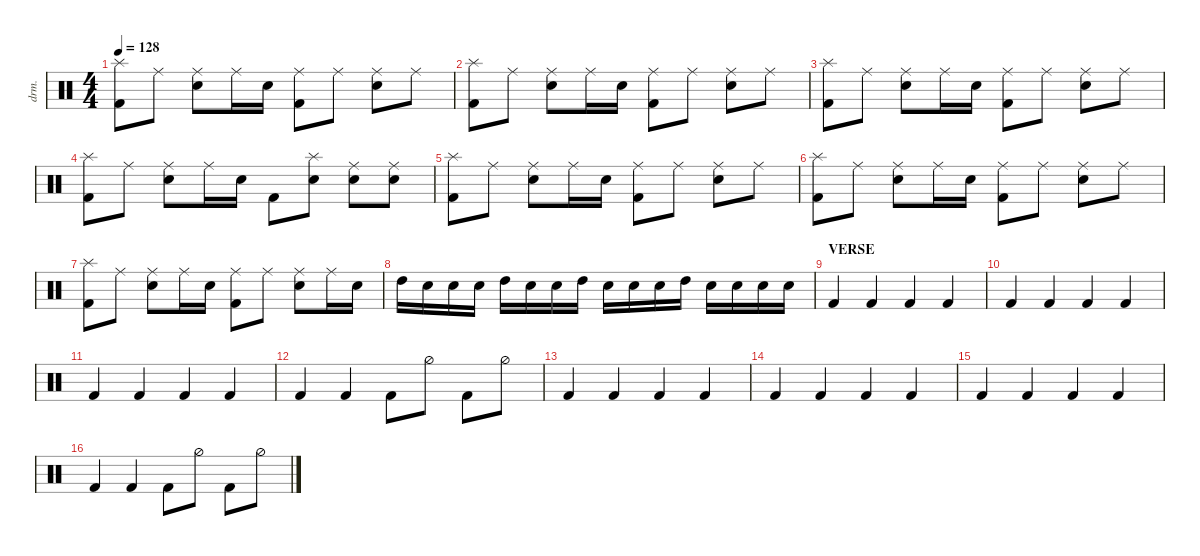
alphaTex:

\defaultSystemsLayout 4
\hideDynamics
\bracketExtendMode nobrackets
\track ("Drumkit" "drm.") {instrument percussion}
\staff {score}
\articulation defaults
\ts (4 4)
\tempo 128
\clef neutral
\ks c
("Kick (hit) 2" "Splash (hit)").8{dy mf beam Down} "Ride (middle)".8{beam Down} ("Ride (middle)" "Snare (hit) 2").8{beam Down} "Ride (middle)".16{beam Down} "Snare (hit) 2".16{beam Down} ("Ride (middle)" "Kick (hit) 2").8{beam Down} "Ride (middle)".8{beam Down} ("Ride (middle)" "Snare (hit) 2").8{beam Down} "Ride (middle)".8{beam Down} |
("Kick (hit) 2" "Splash (hit)").8{beam Down} "Ride (middle)".8{beam Down} ("Ride (middle)" "Snare (hit) 2").8{beam Down} "Ride (middle)".16{beam Down} "Snare (hit) 2".16{beam Down} ("Ride (middle)" "Kick (hit) 2").8{beam Down} "Ride (middle)".8{beam Down} ("Ride (middle)" "Snare (hit) 2").8{beam Down} "Ride (middle)".8{beam Down} |
("Kick (hit) 2" "Splash (hit)").8{beam Down} "Ride (middle)".8{beam Down} ("Ride (middle)" "Snare (hit) 2").8{beam Down} "Ride (middle)".16{beam Down} "Snare (hit) 2".16{beam Down} ("Ride (middle)" "Kick (hit) 2").8{beam Down} "Ride (middle)".8{beam Down} ("Ride (middle)" "Snare (hit) 2").8{beam Down} "Ride (middle)".8{beam Down} |
("Kick (hit) 2" "Splash (hit)").8{beam Down} "Ride (middle)".8{beam Down} ("Ride (middle)" "Snare (hit) 2").8{beam Down} "Ride (middle)".16{beam Down} "Snare (hit) 2".16{beam Down} "Kick (hit) 2".8{beam Down} ("Snare (hit) 2" "Splash (hit)").8{beam Down} ("Ride (middle)" "Snare (hit) 2").8{beam Down} ("Ride (middle)" "Snare (hit) 2").8{beam Down} |
("Kick (hit) 2" "Splash (hit)").8{beam Down} "Ride (middle)".8{beam Down} ("Ride (middle)" "Snare (hit) 2").8{beam Down} "Ride (middle)".16{beam Down} "Snare (hit) 2".16{beam Down} ("Ride (middle)" "Kick (hit) 2").8{beam Down} "Ride (middle)".8{beam Down} ("Ride (middle)" "Snare (hit) 2").8{beam Down} "Ride (middle)".8{beam Down} |
("Kick (hit) 2" "Splash (hit)").8{beam Down} "Ride (middle)".8{beam Down} ("Ride (middle)" "Snare (hit) 2").8{beam Down} "Ride (middle)".16{beam Down} "Snare (hit) 2".16{beam Down} ("Ride (middle)" "Kick (hit) 2").8{beam Down} "Ride (middle)".8{beam Down} ("Ride (middle)" "Snare (hit) 2").8{beam Down} "Ride (middle)".8{beam Down} |
("Kick (hit) 2" "Splash (hit)").8{beam Down} "Ride (middle)".8{beam Down} ("Ride (middle)" "Snare (hit) 2").8{beam Down} "Ride (middle)".16{beam Down} "Snare (hit) 2".16{beam Down} ("Ride (middle)" "Kick (hit) 2").8{beam Down} "Ride (middle)".8{beam Down} ("Ride (middle)" "Snare (hit) 2").8{beam Down} "Ride (middle)".16{beam Down} "Snare (hit) 2".16{beam Down} |
"High Tom (hit)".16{beam Down} "Snare (hit) 2".16{beam Down} "Snare (hit) 2".16{beam Down} "Snare (hit) 2".16{beam Down} "High Tom (hit)".16{beam Down} "Snare (hit) 2".16{beam Down} "Snare (hit) 2".16{beam Down} "High Tom (hit)".16{beam Down} "Snare (hit) 2".16{beam Down} "Snare (hit) 2".16{beam Down} "Snare (hit) 2".16{beam Down} "High Tom (hit)".16{beam Down} "Snare (hit) 2".16{beam Down} "Snare (hit) 2".16{beam Down} "Snare (hit) 2".16{beam Down} "Snare (hit) 2".16{beam Down} |
\section ("" "VERSE")
"Kick (hit) 2".4{beam Up} "Kick (hit) 2".4{beam Up} "Kick (hit) 2".4{beam Up} "Kick (hit) 2".4{beam Up} |
"Kick (hit) 2".4{beam Up} "Kick (hit) 2".4{beam Up} "Kick (hit) 2".4{beam Up} "Kick (hit) 2".4{beam Up} |
"Kick (hit) 2".4{beam Up} "Kick (hit) 2".4{beam Up} "Kick (hit) 2".4{beam Up} "Kick (hit) 2".4{beam Up} |
"Kick (hit) 2".4{beam Up} "Kick (hit) 2".4{beam Up} "Kick (hit) 2".8{beam Down} "Hi-Hat (half)".8{beam Down} "Kick (hit) 2".8{beam Down} "Hi-Hat (half)".8{beam Down} |
"Kick (hit) 2".4{beam Up} "Kick (hit) 2".4{beam Up} "Kick (hit) 2".4{beam Up} "Kick (hit) 2".4{beam Up} |
"Kick (hit) 2".4{beam Up} "Kick (hit) 2".4{beam Up} "Kick (hit) 2".4{beam Up} "Kick (hit) 2".4{beam Up} |
"Kick (hit) 2".4{beam Up} "Kick (hit) 2".4{beam Up} "Kick (hit) 2".4{beam Up} "Kick (hit) 2".4{beam Up} |
"Kick (hit) 2".4{beam Up} "Kick (hit) 2".4{beam Up} "Kick (hit) 2".8{beam Down} "Hi-Hat (half)".8{beam Down} "Kick (hit) 2".8{beam Down} "Hi-Hat (half)".8{beam Down}
